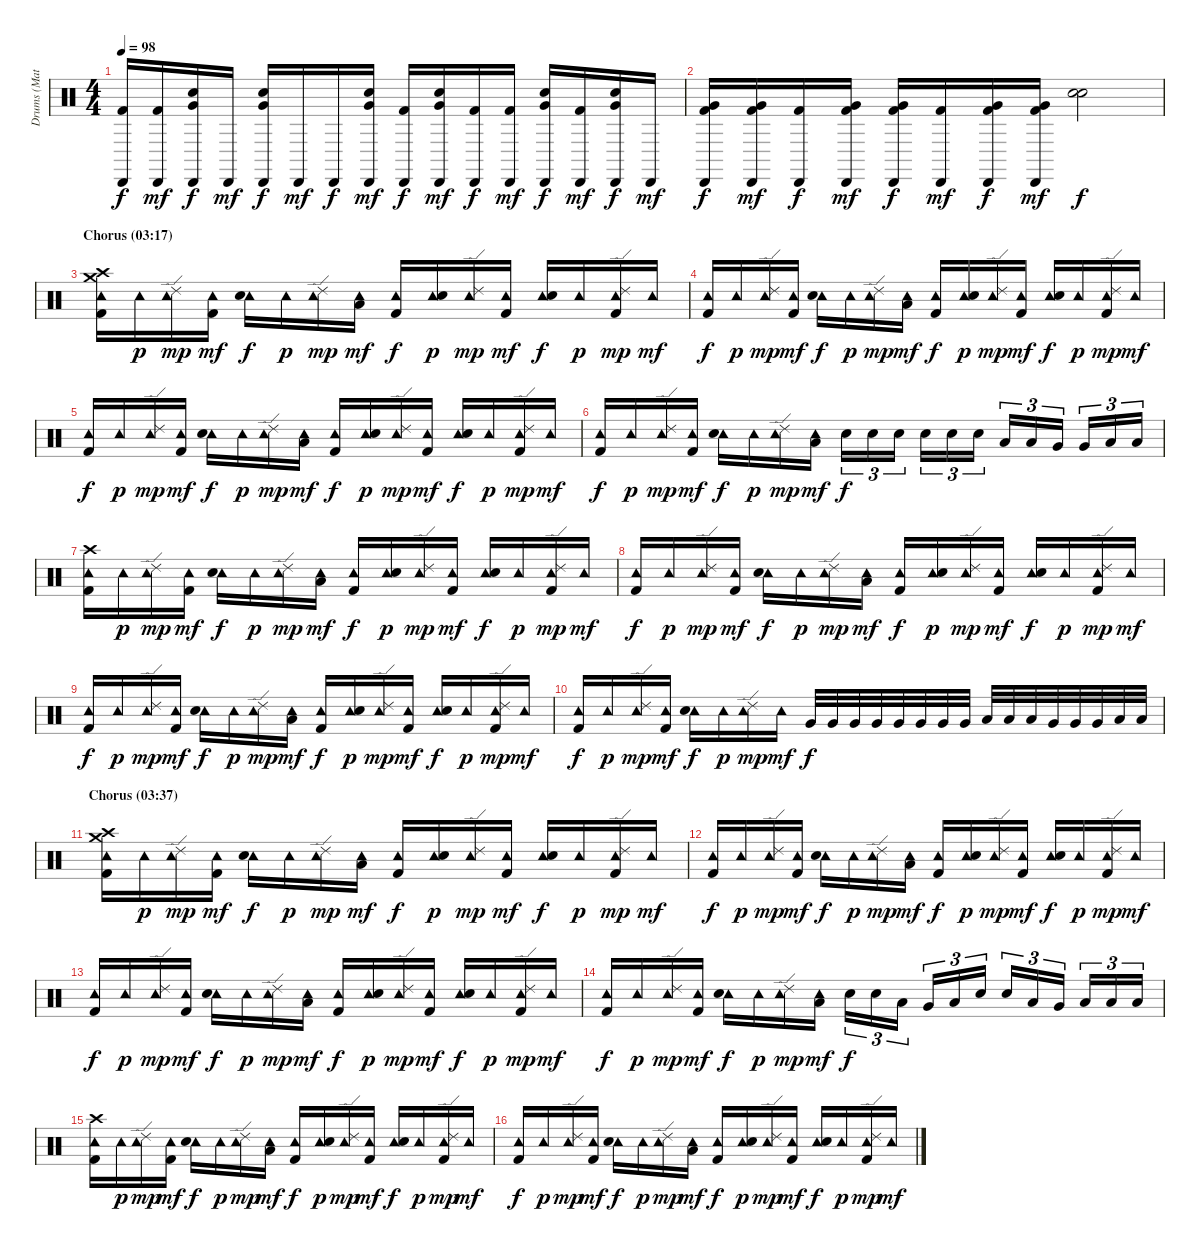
\track ("Drums (Matt Sorum)" "Drums (Mat") {instrument percussion}
\staff {score}
\articulation defaults
\ts (4 4)
\tempo 98
\clef neutral
\ks c
("Cabasa (hit)" "Kick (hit) 2").16{dy f} ("Cabasa (hit)" "Kick (hit) 2").16{dy mf} ("Cabasa (hit)" "Very Low Tom (hit)" "Electric Snare (hit)").16{dy f} "Cabasa (hit)".16{dy mf} ("Cabasa (hit)" "Very Low Tom (hit)" "Electric Snare (hit)").16{dy f} "Cabasa (hit)".16{dy mf} "Cabasa (hit)".16{dy f} ("Cabasa (hit)" "Very Low Tom (hit)" "Electric Snare (hit)").16{dy mf} ("Cabasa (hit)" "Kick (hit) 2").16{dy f} ("Cabasa (hit)" "Very Low Tom (hit)" "Electric Snare (hit)").16{dy mf} ("Cabasa (hit)" "Kick (hit) 2").16{dy f} ("Cabasa (hit)" "Kick (hit) 2").16{dy mf} ("Cabasa (hit)" "Very Low Tom (hit)" "Electric Snare (hit)").16{dy f} ("Cabasa (hit)" "Kick (hit) 2").16{dy mf} ("Cabasa (hit)" "Very Low Tom (hit)" "Electric Snare (hit)").16{dy f} "Cabasa (hit)".16{dy mf} |
("Cabasa (hit)" "Very Low Tom (hit)" "Kick (hit) 2").16{dy f} ("Cabasa (hit)" "Very Low Tom (hit)" "Kick (hit) 2").16{dy mf} ("Cabasa (hit)" "Kick (hit) 2").16{dy f} ("Cabasa (hit)" "Very Low Tom (hit)" "Kick (hit) 2").16{dy mf} ("Cabasa (hit)" "Very Low Tom (hit)" "Kick (hit) 2").16{dy f} ("Cabasa (hit)" "Kick (hit) 2").16{dy mf} ("Cabasa (hit)" "Very Low Tom (hit)" "Kick (hit) 2").16{dy f} ("Cabasa (hit)" "Very Low Tom (hit)" "Kick (hit) 2").16{dy mf} ("Electric Snare (hit)" "Electric Snare (hit)").2{bd 240 dy f} |
\section ("" "Chorus (03:17)")
("Tambourine (hit)" "Crash high (hit)" "Crash medium (hit)" "Kick (hit) 2").16 "Tambourine (hit)".16{dy p} ("Tambourine (hit)" "Ride (edge) 2").16{dy mp} ("Tambourine (hit)" "Kick (hit) 2").16{dy mf} ("Tambourine (hit)" "Electric Snare (hit)").16{dy f} "Tambourine (hit)".16{dy p} ("Tambourine (hit)" "Ride (edge) 2").16{dy mp} ("Tambourine (hit)" "Low Tom (hit)").16{dy mf} ("Tambourine (hit)" "Kick (hit) 2").16{dy f} ("Tambourine (hit)" "Electric Snare (hit)").16{dy p} ("Tambourine (hit)" "Ride (edge) 2").16{dy mp} ("Tambourine (hit)" "Kick (hit) 2").16{dy mf} ("Tambourine (hit)" "Electric Snare (hit)").16{dy f} "Tambourine (hit)".16{dy p} ("Tambourine (hit)" "Ride (edge) 2" "Kick (hit) 2").16{dy mp} "Tambourine (hit)".16{dy mf} |
("Tambourine (hit)" "Kick (hit) 2").16{dy f} "Tambourine (hit)".16{dy p} ("Tambourine (hit)" "Ride (edge) 2").16{dy mp} ("Tambourine (hit)" "Kick (hit) 2").16{dy mf} ("Tambourine (hit)" "Electric Snare (hit)").16{dy f} "Tambourine (hit)".16{dy p} ("Tambourine (hit)" "Ride (edge) 2").16{dy mp} ("Tambourine (hit)" "Low Tom (hit)").16{dy mf} ("Tambourine (hit)" "Kick (hit) 2").16{dy f} ("Tambourine (hit)" "Electric Snare (hit)").16{dy p} ("Tambourine (hit)" "Ride (edge) 2").16{dy mp} ("Tambourine (hit)" "Kick (hit) 2").16{dy mf} ("Tambourine (hit)" "Electric Snare (hit)").16{dy f} "Tambourine (hit)".16{dy p} ("Tambourine (hit)" "Ride (edge) 2" "Kick (hit) 2").16{dy mp} "Tambourine (hit)".16{dy mf} |
("Tambourine (hit)" "Kick (hit) 2").16{dy f} "Tambourine (hit)".16{dy p} ("Tambourine (hit)" "Ride (edge) 2").16{dy mp} ("Tambourine (hit)" "Kick (hit) 2").16{dy mf} ("Tambourine (hit)" "Electric Snare (hit)").16{dy f} "Tambourine (hit)".16{dy p} ("Tambourine (hit)" "Ride (edge) 2").16{dy mp} ("Tambourine (hit)" "Low Tom (hit)").16{dy mf} ("Tambourine (hit)" "Kick (hit) 2").16{dy f} ("Tambourine (hit)" "Electric Snare (hit)").16{dy p} ("Tambourine (hit)" "Ride (edge) 2").16{dy mp} ("Tambourine (hit)" "Kick (hit) 2").16{dy mf} ("Tambourine (hit)" "Electric Snare (hit)").16{dy f} "Tambourine (hit)".16{dy p} ("Tambourine (hit)" "Ride (edge) 2" "Kick (hit) 2").16{dy mp} "Tambourine (hit)".16{dy mf} |
("Tambourine (hit)" "Kick (hit) 2").16{dy f} "Tambourine (hit)".16{dy p} ("Tambourine (hit)" "Ride (edge) 2").16{dy mp} ("Tambourine (hit)" "Kick (hit) 2").16{dy mf} ("Tambourine (hit)" "Electric Snare (hit)").16{dy f} "Tambourine (hit)".16{dy p} ("Tambourine (hit)" "Ride (edge) 2").16{dy mp} ("Tambourine (hit)" "Low Tom (hit)").16{dy mf} "Electric Snare (hit)".16{tu (3 2) dy f} "Electric Snare (hit)".16{tu (3 2)} "Electric Snare (hit)".16{tu (3 2)} "Electric Snare (hit)".16{tu (3 2)} "Electric Snare (hit)".16{tu (3 2)} "Electric Snare (hit)".16{tu (3 2)} "Low Tom (hit)".16{tu (3 2)} "Low Tom (hit)".16{tu (3 2)} "Very Low Tom (hit)".16{tu (3 2)} "Very Low Tom (hit)".16{tu (3 2)} "Low Floor Tom (hit)".16{tu (3 2)} "Low Floor Tom (hit)".16{tu (3 2)} |
("Tambourine (hit)" "Crash high (hit)" "Kick (hit) 2").16 "Tambourine (hit)".16{dy p} ("Tambourine (hit)" "Ride (edge) 2").16{dy mp} ("Tambourine (hit)" "Kick (hit) 2").16{dy mf} ("Tambourine (hit)" "Electric Snare (hit)").16{dy f} "Tambourine (hit)".16{dy p} ("Tambourine (hit)" "Ride (edge) 2").16{dy mp} ("Tambourine (hit)" "Low Tom (hit)").16{dy mf} ("Tambourine (hit)" "Kick (hit) 2").16{dy f} ("Tambourine (hit)" "Electric Snare (hit)").16{dy p} ("Tambourine (hit)" "Ride (edge) 2").16{dy mp} ("Tambourine (hit)" "Kick (hit) 2").16{dy mf} ("Tambourine (hit)" "Electric Snare (hit)").16{dy f} "Tambourine (hit)".16{dy p} ("Tambourine (hit)" "Ride (edge) 2" "Kick (hit) 2").16{dy mp} "Tambourine (hit)".16{dy mf} |
("Tambourine (hit)" "Kick (hit) 2").16{dy f} "Tambourine (hit)".16{dy p} ("Tambourine (hit)" "Ride (edge) 2").16{dy mp} ("Tambourine (hit)" "Kick (hit) 2").16{dy mf} ("Tambourine (hit)" "Electric Snare (hit)").16{dy f} "Tambourine (hit)".16{dy p} ("Tambourine (hit)" "Ride (edge) 2").16{dy mp} ("Tambourine (hit)" "Low Tom (hit)").16{dy mf} ("Tambourine (hit)" "Kick (hit) 2").16{dy f} ("Tambourine (hit)" "Electric Snare (hit)").16{dy p} ("Tambourine (hit)" "Ride (edge) 2").16{dy mp} ("Tambourine (hit)" "Kick (hit) 2").16{dy mf} ("Tambourine (hit)" "Electric Snare (hit)").16{dy f} "Tambourine (hit)".16{dy p} ("Tambourine (hit)" "Ride (edge) 2" "Kick (hit) 2").16{dy mp} "Tambourine (hit)".16{dy mf} |
("Tambourine (hit)" "Kick (hit) 2").16{dy f} "Tambourine (hit)".16{dy p} ("Tambourine (hit)" "Ride (edge) 2").16{dy mp} ("Tambourine (hit)" "Kick (hit) 2").16{dy mf} ("Tambourine (hit)" "Electric Snare (hit)").16{dy f} "Tambourine (hit)".16{dy p} ("Tambourine (hit)" "Ride (edge) 2").16{dy mp} ("Tambourine (hit)" "Low Tom (hit)").16{dy mf} ("Tambourine (hit)" "Kick (hit) 2").16{dy f} ("Tambourine (hit)" "Electric Snare (hit)").16{dy p} ("Tambourine (hit)" "Ride (edge) 2").16{dy mp} ("Tambourine (hit)" "Kick (hit) 2").16{dy mf} ("Tambourine (hit)" "Electric Snare (hit)").16{dy f} "Tambourine (hit)".16{dy p} ("Tambourine (hit)" "Ride (edge) 2" "Kick (hit) 2").16{dy mp} "Tambourine (hit)".16{dy mf} |
("Tambourine (hit)" "Kick (hit) 2").16{dy f} "Tambourine (hit)".16{dy p} ("Tambourine (hit)" "Ride (edge) 2").16{dy mp} ("Tambourine (hit)" "Kick (hit) 2").16{dy mf} ("Tambourine (hit)" "Electric Snare (hit)").16{dy f} "Tambourine (hit)".16{dy p} ("Tambourine (hit)" "Ride (edge) 2").16{dy mp} "Tambourine (hit)".16{dy mf} "Very Low Tom (hit)".32{dy f} "Very Low Tom (hit)".32 "Very Low Tom (hit)".32 "Very Low Tom (hit)".32 "Very Low Tom (hit)".32 "Very Low Tom (hit)".32 "Very Low Tom (hit)".32 "Very Low Tom (hit)".32 "Low Tom (hit)".32 "Low Tom (hit)".32 "Low Tom (hit)".32 "Very Low Tom (hit)".32 "Very Low Tom (hit)".32 "Very Low Tom (hit)".32 "Low Floor Tom (hit)".32 "Low Floor Tom (hit)".32 |
\section ("" "Chorus (03:37)")
("Tambourine (hit)" "Crash high (hit)" "Crash medium (hit)" "Kick (hit) 2").16 "Tambourine (hit)".16{dy p} ("Tambourine (hit)" "Ride (edge) 2").16{dy mp} ("Tambourine (hit)" "Kick (hit) 2").16{dy mf} ("Tambourine (hit)" "Electric Snare (hit)").16{dy f} "Tambourine (hit)".16{dy p} ("Tambourine (hit)" "Ride (edge) 2").16{dy mp} ("Tambourine (hit)" "Low Tom (hit)").16{dy mf} ("Tambourine (hit)" "Kick (hit) 2").16{dy f} ("Tambourine (hit)" "Electric Snare (hit)").16{dy p} ("Tambourine (hit)" "Ride (edge) 2").16{dy mp} ("Tambourine (hit)" "Kick (hit) 2").16{dy mf} ("Tambourine (hit)" "Electric Snare (hit)").16{dy f} "Tambourine (hit)".16{dy p} ("Tambourine (hit)" "Ride (edge) 2" "Kick (hit) 2").16{dy mp} "Tambourine (hit)".16{dy mf} |
("Tambourine (hit)" "Kick (hit) 2").16{dy f} "Tambourine (hit)".16{dy p} ("Tambourine (hit)" "Ride (edge) 2").16{dy mp} ("Tambourine (hit)" "Kick (hit) 2").16{dy mf} ("Tambourine (hit)" "Electric Snare (hit)").16{dy f} "Tambourine (hit)".16{dy p} ("Tambourine (hit)" "Ride (edge) 2").16{dy mp} ("Tambourine (hit)" "Low Tom (hit)").16{dy mf} ("Tambourine (hit)" "Kick (hit) 2").16{dy f} ("Tambourine (hit)" "Electric Snare (hit)").16{dy p} ("Tambourine (hit)" "Ride (edge) 2").16{dy mp} ("Tambourine (hit)" "Kick (hit) 2").16{dy mf} ("Tambourine (hit)" "Electric Snare (hit)").16{dy f} "Tambourine (hit)".16{dy p} ("Tambourine (hit)" "Ride (edge) 2" "Kick (hit) 2").16{dy mp} "Tambourine (hit)".16{dy mf} |
("Tambourine (hit)" "Kick (hit) 2").16{dy f} "Tambourine (hit)".16{dy p} ("Tambourine (hit)" "Ride (edge) 2").16{dy mp} ("Tambourine (hit)" "Kick (hit) 2").16{dy mf} ("Tambourine (hit)" "Electric Snare (hit)").16{dy f} "Tambourine (hit)".16{dy p} ("Tambourine (hit)" "Ride (edge) 2").16{dy mp} ("Tambourine (hit)" "Low Tom (hit)").16{dy mf} ("Tambourine (hit)" "Kick (hit) 2").16{dy f} ("Tambourine (hit)" "Electric Snare (hit)").16{dy p} ("Tambourine (hit)" "Ride (edge) 2").16{dy mp} ("Tambourine (hit)" "Kick (hit) 2").16{dy mf} ("Tambourine (hit)" "Electric Snare (hit)").16{dy f} "Tambourine (hit)".16{dy p} ("Tambourine (hit)" "Ride (edge) 2" "Kick (hit) 2").16{dy mp} "Tambourine (hit)".16{dy mf} |
("Tambourine (hit)" "Kick (hit) 2").16{dy f} "Tambourine (hit)".16{dy p} ("Tambourine (hit)" "Ride (edge) 2").16{dy mp} ("Tambourine (hit)" "Kick (hit) 2").16{dy mf} ("Tambourine (hit)" "Electric Snare (hit)").16{dy f} "Tambourine (hit)".16{dy p} ("Tambourine (hit)" "Ride (edge) 2").16{dy mp} ("Tambourine (hit)" "Low Tom (hit)").16{dy mf} "Electric Snare (hit)".16{tu (3 2) dy f} "Electric Snare (hit)".16{tu (3 2)} "Low Tom (hit)".16{tu (3 2)} "Very Low Tom (hit)".16{tu (3 2)} "Low Floor Tom (hit)".16{tu (3 2)} "Electric Snare (hit)".16{tu (3 2)} "Electric Snare (hit)".16{tu (3 2)} "Low Tom (hit)".16{tu (3 2)} "Very Low Tom (hit)".16{tu (3 2)} "Low Floor Tom (hit)".16{tu (3 2)} "Low Floor Tom (hit)".16{tu (3 2)} "Low Floor Tom (hit)".16{tu (3 2)} |
("Tambourine (hit)" "Crash high (hit)" "Kick (hit) 2").16 "Tambourine (hit)".16{dy p} ("Tambourine (hit)" "Ride (edge) 2").16{dy mp} ("Tambourine (hit)" "Kick (hit) 2").16{dy mf} ("Tambourine (hit)" "Electric Snare (hit)").16{dy f} "Tambourine (hit)".16{dy p} ("Tambourine (hit)" "Ride (edge) 2").16{dy mp} ("Tambourine (hit)" "Low Tom (hit)").16{dy mf} ("Tambourine (hit)" "Kick (hit) 2").16{dy f} ("Tambourine (hit)" "Electric Snare (hit)").16{dy p} ("Tambourine (hit)" "Ride (edge) 2").16{dy mp} ("Tambourine (hit)" "Kick (hit) 2").16{dy mf} ("Tambourine (hit)" "Electric Snare (hit)").16{dy f} "Tambourine (hit)".16{dy p} ("Tambourine (hit)" "Ride (edge) 2" "Kick (hit) 2").16{dy mp} "Tambourine (hit)".16{dy mf} |
("Tambourine (hit)" "Kick (hit) 2").16{dy f} "Tambourine (hit)".16{dy p} ("Tambourine (hit)" "Ride (edge) 2").16{dy mp} ("Tambourine (hit)" "Kick (hit) 2").16{dy mf} ("Tambourine (hit)" "Electric Snare (hit)").16{dy f} "Tambourine (hit)".16{dy p} ("Tambourine (hit)" "Ride (edge) 2").16{dy mp} ("Tambourine (hit)" "Low Tom (hit)").16{dy mf} ("Tambourine (hit)" "Kick (hit) 2").16{dy f} ("Tambourine (hit)" "Electric Snare (hit)").16{dy p} ("Tambourine (hit)" "Ride (edge) 2").16{dy mp} ("Tambourine (hit)" "Kick (hit) 2").16{dy mf} ("Tambourine (hit)" "Electric Snare (hit)").16{dy f} "Tambourine (hit)".16{dy p} ("Tambourine (hit)" "Ride (edge) 2" "Kick (hit) 2").16{dy mp} "Tambourine (hit)".16{dy mf}
